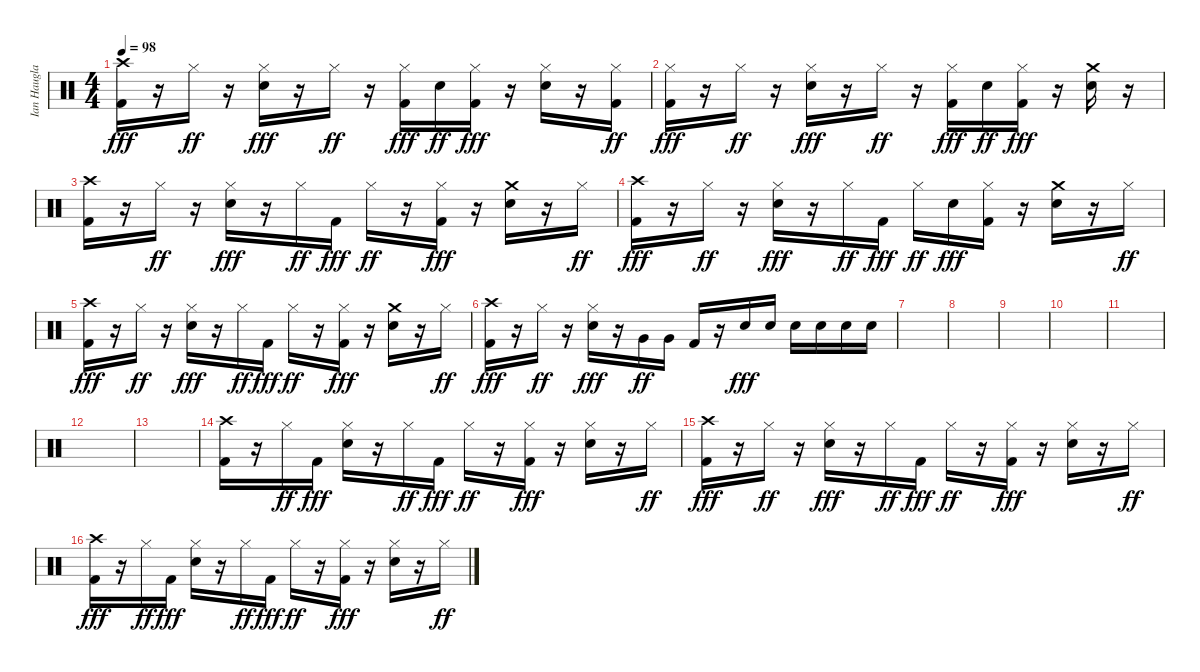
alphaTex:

\track ("Ian Haugland" "Ian Haugla") {instrument percussion}
\staff {score}
\articulation defaults
\ts (4 4)
\tempo 98
\clef neutral
\ks c
("Crash high (hit)" "Kick (hit) 2").16{dy fff} r.16 "Hi-Hat (closed)".16{dy ff} r.16 ("Hi-Hat (closed)" "Electric Snare (hit)").16{dy fff} r.16 "Hi-Hat (closed)".16{dy ff} r.16 ("Hi-Hat (closed)" "Kick (hit) 2").16{dy fff} "Electric Snare (hit)".16{dy ff} ("Hi-Hat (closed)" "Kick (hit) 2").16{dy fff} r.16 ("Hi-Hat (closed)" "Electric Snare (hit)").16 r.16 ("Hi-Hat (closed)" "Kick (hit) 2").16{dy ff} |
("Hi-Hat (closed)" "Kick (hit) 2").16{dy fff} r.16 "Hi-Hat (closed)".16{dy ff} r.16 ("Hi-Hat (closed)" "Electric Snare (hit)").16{dy fff} r.16 "Hi-Hat (closed)".16{dy ff} r.16 ("Hi-Hat (closed)" "Kick (hit) 2").16{dy fff} "Electric Snare (hit)".16{dy ff} ("Hi-Hat (closed)" "Kick (hit) 2").16{dy fff} r.16 ("Crash medium (hit)" "Electric Snare (hit)").16 r.16 |
("Crash high (hit)" "Kick (hit) 2").16 r.16 "Hi-Hat (closed)".16{dy ff} r.16 ("Hi-Hat (closed)" "Electric Snare (hit)").16{dy fff} r.16 "Hi-Hat (closed)".16{dy ff} "Kick (hit) 2".16{dy fff} "Hi-Hat (closed)".16{dy ff} r.16 ("Hi-Hat (closed)" "Kick (hit) 2").16{dy fff} r.16 ("Crash medium (hit)" "Electric Snare (hit)").16 r.16 "Hi-Hat (closed)".16{dy ff} |
("Crash high (hit)" "Kick (hit) 2").16{dy fff} r.16 "Hi-Hat (closed)".16{dy ff} r.16 ("Hi-Hat (closed)" "Electric Snare (hit)").16{dy fff} r.16 "Hi-Hat (closed)".16{dy ff} "Kick (hit) 2".16{dy fff} "Hi-Hat (closed)".16{dy ff} "Electric Snare (hit)".16{dy fff} ("Hi-Hat (closed)" "Kick (hit) 2").16 r.16 ("Crash medium (hit)" "Electric Snare (hit)").16 r.16 "Hi-Hat (closed)".16{dy ff} |
("Crash high (hit)" "Kick (hit) 2").16{dy fff} r.16 "Hi-Hat (closed)".16{dy ff} r.16 ("Hi-Hat (closed)" "Electric Snare (hit)").16{dy fff} r.16 "Hi-Hat (closed)".16{dy ff} "Kick (hit) 2".16{dy fff} "Hi-Hat (closed)".16{dy ff} r.16 ("Hi-Hat (closed)" "Kick (hit) 2").16{dy fff} r.16 ("Crash medium (hit)" "Electric Snare (hit)").16 r.16 "Hi-Hat (closed)".16{dy ff} |
("Crash high (hit)" "Kick (hit) 2").16{dy fff} r.16 "Hi-Hat (closed)".16{dy ff} r.16 ("Hi-Hat (closed)" "Electric Snare (hit)").16{dy fff} r.16 "Very Low Tom (hit)".16{dy ff} "Very Low Tom (hit)".16 "Kick (hit) 2".16 r.16 "Electric Snare (hit)".16{dy fff} "Electric Snare (hit)".16 "Electric Snare (hit)".16 "Electric Snare (hit)".16 "Electric Snare (hit)".16 "Electric Snare (hit)".16 |
|
|
|
|
|
|
|
("Crash high (hit)" "Kick (hit) 2").16 r.16 "Hi-Hat (closed)".16{dy ff} "Kick (hit) 2".16{dy fff} ("Hi-Hat (closed)" "Electric Snare (hit)").16 r.16 "Hi-Hat (closed)".16{dy ff} "Kick (hit) 2".16{dy fff} "Hi-Hat (closed)".16{dy ff} r.16 ("Hi-Hat (closed)" "Kick (hit) 2").16{dy fff} r.16 ("Hi-Hat (closed)" "Electric Snare (hit)").16 r.16 "Hi-Hat (closed)".16{dy ff} |
("Crash high (hit)" "Kick (hit) 2").16{dy fff} r.16 "Hi-Hat (closed)".16{dy ff} r.16 ("Hi-Hat (closed)" "Electric Snare (hit)").16{dy fff} r.16 "Hi-Hat (closed)".16{dy ff} "Kick (hit) 2".16{dy fff} "Hi-Hat (closed)".16{dy ff} r.16 ("Hi-Hat (closed)" "Kick (hit) 2").16{dy fff} r.16 ("Hi-Hat (closed)" "Electric Snare (hit)").16 r.16 "Hi-Hat (closed)".16{dy ff} |
("Crash high (hit)" "Kick (hit) 2").16{dy fff} r.16 "Hi-Hat (closed)".16{dy ff} "Kick (hit) 2".16{dy fff} ("Hi-Hat (closed)" "Electric Snare (hit)").16 r.16 "Hi-Hat (closed)".16{dy ff} "Kick (hit) 2".16{dy fff} "Hi-Hat (closed)".16{dy ff} r.16 ("Hi-Hat (closed)" "Kick (hit) 2").16{dy fff} r.16 ("Hi-Hat (closed)" "Electric Snare (hit)").16 r.16 "Hi-Hat (closed)".16{dy ff}
